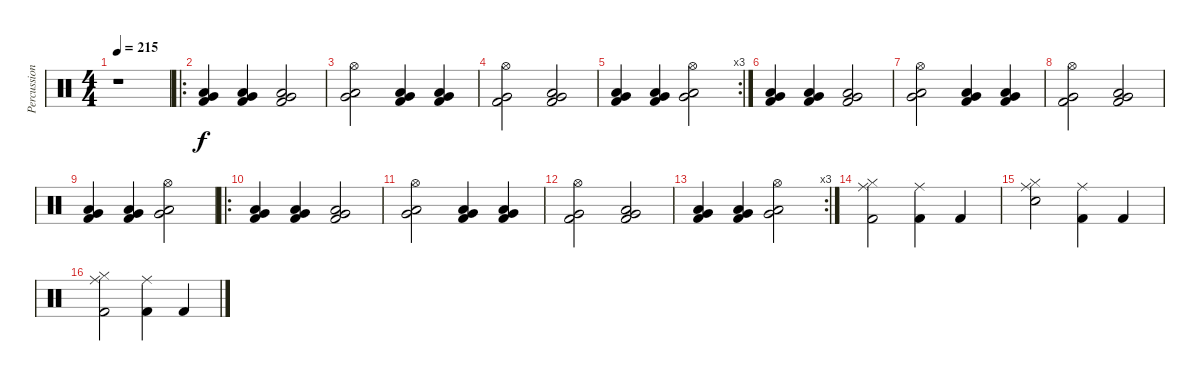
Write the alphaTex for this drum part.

\track ("Percussion" "Percussion") {instrument percussion}
\staff {score}
\articulation defaults
\ts (4 4)
\tempo 215
\clef neutral
\ks c
r.1{dy f} |
\ro
("Very Low Tom (hit)" "Low Floor Tom (hit)" "Kick (hit) 2").4 ("Very Low Tom (hit)" "Low Floor Tom (hit)" "Kick (hit) 2").4 ("Very Low Tom (hit)" "Low Floor Tom (hit)" "Kick (hit) 2").2 |
("Hi-Hat (open)" "Low Floor Tom (hit)" "Very Low Tom (hit)").2 ("Kick (hit) 2" "Low Floor Tom (hit)" "Very Low Tom (hit)").4 ("Kick (hit) 2" "Low Floor Tom (hit)" "Very Low Tom (hit)").4 |
("Hi-Hat (open)" "Kick (hit) 2" "Very Low Tom (hit)").2 ("Kick (hit) 2" "Low Floor Tom (hit)" "Very Low Tom (hit)").2 |
\rc 3
("Very Low Tom (hit)" "Low Floor Tom (hit)" "Kick (hit) 2").4 ("Very Low Tom (hit)" "Low Floor Tom (hit)" "Kick (hit) 2").4 ("Hi-Hat (open)" "Low Floor Tom (hit)" "Very Low Tom (hit)").2 |
("Very Low Tom (hit)" "Low Floor Tom (hit)" "Kick (hit) 2").4 ("Very Low Tom (hit)" "Low Floor Tom (hit)" "Kick (hit) 2").4 ("Very Low Tom (hit)" "Low Floor Tom (hit)" "Kick (hit) 2").2 |
("Hi-Hat (open)" "Low Floor Tom (hit)" "Very Low Tom (hit)").2 ("Kick (hit) 2" "Low Floor Tom (hit)" "Very Low Tom (hit)").4 ("Kick (hit) 2" "Low Floor Tom (hit)" "Very Low Tom (hit)").4 |
("Hi-Hat (open)" "Kick (hit) 2" "Very Low Tom (hit)").2 ("Kick (hit) 2" "Low Floor Tom (hit)" "Very Low Tom (hit)").2 |
("Very Low Tom (hit)" "Low Floor Tom (hit)" "Kick (hit) 2").4 ("Very Low Tom (hit)" "Low Floor Tom (hit)" "Kick (hit) 2").4 ("Hi-Hat (open)" "Low Floor Tom (hit)" "Very Low Tom (hit)").2 |
\ro
("Very Low Tom (hit)" "Low Floor Tom (hit)" "Kick (hit) 2").4 ("Very Low Tom (hit)" "Low Floor Tom (hit)" "Kick (hit) 2").4 ("Very Low Tom (hit)" "Low Floor Tom (hit)" "Kick (hit) 2").2 |
("Hi-Hat (open)" "Low Floor Tom (hit)" "Very Low Tom (hit)").2 ("Kick (hit) 2" "Low Floor Tom (hit)" "Very Low Tom (hit)").4 ("Kick (hit) 2" "Low Floor Tom (hit)" "Very Low Tom (hit)").4 |
("Hi-Hat (open)" "Kick (hit) 2" "Very Low Tom (hit)").2 ("Kick (hit) 2" "Low Floor Tom (hit)" "Very Low Tom (hit)").2 |
\rc 3
("Very Low Tom (hit)" "Low Floor Tom (hit)" "Kick (hit) 2").4 ("Very Low Tom (hit)" "Low Floor Tom (hit)" "Kick (hit) 2").4 ("Hi-Hat (open)" "Low Floor Tom (hit)" "Very Low Tom (hit)").2 |
("Hi-Hat (closed)" "Ride (middle)" "Kick (hit) 2").2 ("Ride (middle)" "Kick (hit) 2").4 "Kick (hit) 2".4 |
("Hi-Hat (closed)" "Ride (middle)" "Electric Snare (hit)").2 ("Ride (middle)" "Kick (hit) 2").4 "Kick (hit) 2".4 |
("Hi-Hat (closed)" "Ride (middle)" "Kick (hit) 2").2 ("Ride (middle)" "Kick (hit) 2").4 "Kick (hit) 2".4
